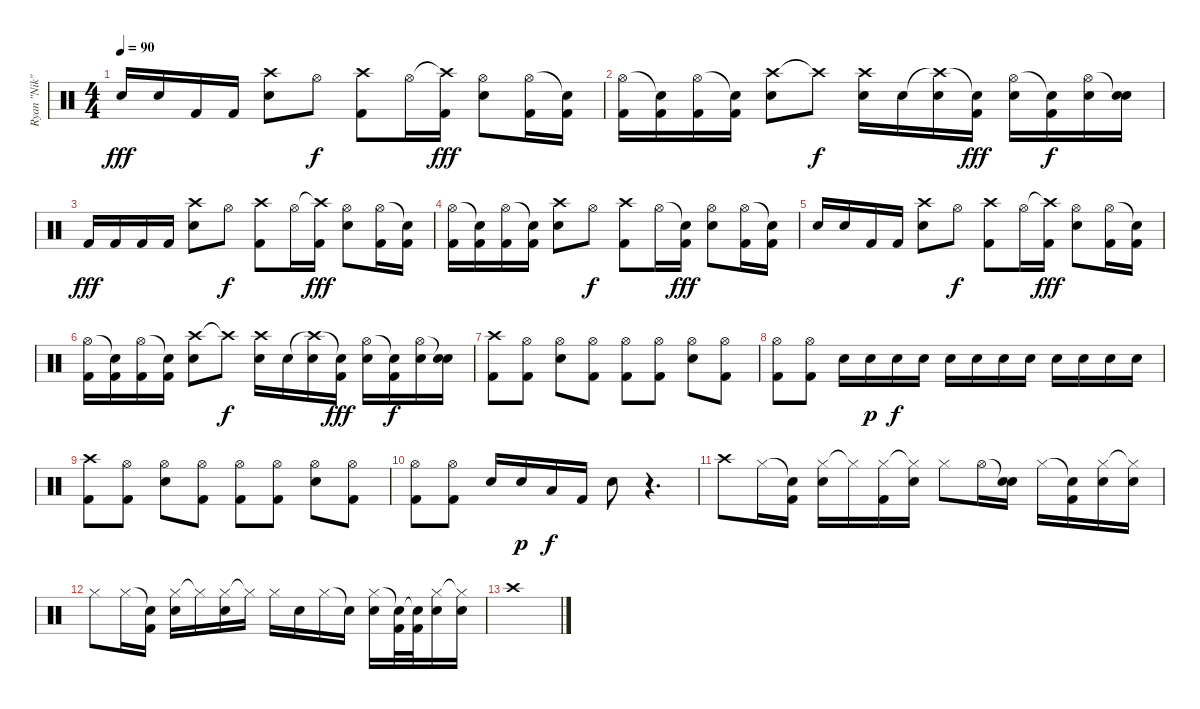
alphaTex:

\track ("Ryan \"Nik\" Vikedal (drums)" "Ryan \"Nik\"") {instrument percussion}
\staff {score}
\articulation defaults
\ts (4 4)
\tempo 90
\clef neutral
\ks c "Electric Snare (hit)".16{dy fff} "Electric Snare (hit)".16 "Kick (hit) 2".16 "Kick (hit) 2".16
("Crash high (hit)" "Electric Snare (hit)").8 "Hi-Hat (open)".8{dy f} ("Crash high (hit)" "Kick (hit) 2").8 "Hi-Hat (open)".16 ("Crash high (hit)"{t} "Kick (hit) 2").16{dy fff} ("Hi-Hat (open)" "Electric Snare (hit)").8 ("Hi-Hat (open)" "Kick (hit) 2").16 ("Snare (hit)"{t} "Kick (hit) 2").16 |
("Hi-Hat (open)" "Kick (hit) 2").16 ("Snare (hit)"{t} "Kick (hit) 2").16 ("Hi-Hat (open)" "Kick (hit) 2").16 ("Snare (hit)"{t} "Kick (hit) 2").16 ("Crash high (hit)" "Electric Snare (hit)").8 "Crash high (hit)"{t}.8{dy f} ("Crash high (hit)" "Electric Snare (hit)").16 "Electric Snare (hit)".16 ("Crash high (hit)"{t} "Electric Snare (hit)").16 ("Snare (hit)"{t} "Kick (hit) 2").16{dy fff} ("Hi-Hat (open)" "Electric Snare (hit)").16 ("Snare (hit)"{t} "Kick (hit) 2").16{dy f} ("Hi-Hat (open)" "Electric Snare (hit)").16 ("Snare (hit)"{t} "Electric Snare (hit)").16 |
"Kick (hit) 2".16{dy fff} "Kick (hit) 2".16 "Kick (hit) 2".16 "Kick (hit) 2".16 ("Crash high (hit)" "Electric Snare (hit)").8 "Hi-Hat (open)".8{dy f} ("Crash high (hit)" "Kick (hit) 2").8 "Hi-Hat (open)".16 ("Crash high (hit)"{t} "Kick (hit) 2").16{dy fff} ("Hi-Hat (open)" "Electric Snare (hit)").8 ("Hi-Hat (open)" "Kick (hit) 2").16 ("Snare (hit)"{t} "Kick (hit) 2").16 |
("Hi-Hat (open)" "Kick (hit) 2").16 ("Snare (hit)"{t} "Kick (hit) 2").16 ("Hi-Hat (open)" "Kick (hit) 2").16 ("Snare (hit)"{t} "Kick (hit) 2").16 ("Crash high (hit)" "Electric Snare (hit)").8 "Hi-Hat (open)".8{dy f} ("Crash high (hit)" "Kick (hit) 2").8 "Hi-Hat (open)".16 ("Snare (hit)"{t} "Kick (hit) 2").16{dy fff} ("Hi-Hat (open)" "Electric Snare (hit)").8 ("Hi-Hat (open)" "Kick (hit) 2").16 ("Snare (hit)"{t} "Kick (hit) 2").16 |
"Electric Snare (hit)".16 "Electric Snare (hit)".16 "Kick (hit) 2".16 "Kick (hit) 2".16 ("Crash high (hit)" "Electric Snare (hit)").8 "Hi-Hat (open)".8{dy f} ("Crash high (hit)" "Kick (hit) 2").8 "Hi-Hat (open)".16 ("Crash high (hit)"{t} "Kick (hit) 2").16{dy fff} ("Hi-Hat (open)" "Electric Snare (hit)").8 ("Hi-Hat (open)" "Kick (hit) 2").16 ("Snare (hit)"{t} "Kick (hit) 2").16 |
("Hi-Hat (open)" "Kick (hit) 2").16 ("Snare (hit)"{t} "Kick (hit) 2").16 ("Hi-Hat (open)" "Kick (hit) 2").16 ("Snare (hit)"{t} "Kick (hit) 2").16 ("Crash high (hit)" "Electric Snare (hit)").8 "Crash high (hit)"{t}.8{dy f} ("Crash high (hit)" "Electric Snare (hit)").16 "Electric Snare (hit)".16 ("Crash high (hit)"{t} "Electric Snare (hit)").16 ("Snare (hit)"{t} "Kick (hit) 2").16{dy fff} ("Hi-Hat (open)" "Electric Snare (hit)").16 ("Snare (hit)"{t} "Kick (hit) 2").16{dy f} ("Hi-Hat (open)" "Electric Snare (hit)").16 ("Snare (hit)"{t} "Electric Snare (hit)").16 |
("Crash high (hit)" "Kick (hit) 2").8 ("Hi-Hat (open)" "Kick (hit) 2").8 ("Hi-Hat (open)" "Electric Snare (hit)").8 ("Hi-Hat (open)" "Kick (hit) 2").8 ("Hi-Hat (open)" "Kick (hit) 2").8 ("Hi-Hat (open)" "Kick (hit) 2").8 ("Hi-Hat (open)" "Electric Snare (hit)").8 ("Hi-Hat (open)" "Kick (hit) 2").8 |
("Hi-Hat (open)" "Kick (hit) 2").8 ("Hi-Hat (open)" "Kick (hit) 2").8 "Electric Snare (hit)".16 "Electric Snare (hit)".16{dy p} "Electric Snare (hit)".16{dy f} "Electric Snare (hit)".16 "Electric Snare (hit)".16 "Electric Snare (hit)".16 "Electric Snare (hit)".16 "Electric Snare (hit)".16 "Electric Snare (hit)".16 "Electric Snare (hit)".16 "Electric Snare (hit)".16 "Electric Snare (hit)".16 |
("Crash high (hit)" "Kick (hit) 2").8 ("Hi-Hat (open)" "Kick (hit) 2").8 ("Hi-Hat (open)" "Electric Snare (hit)").8 ("Hi-Hat (open)" "Kick (hit) 2").8 ("Hi-Hat (open)" "Kick (hit) 2").8 ("Hi-Hat (open)" "Kick (hit) 2").8 ("Hi-Hat (open)" "Electric Snare (hit)").8 ("Hi-Hat (open)" "Kick (hit) 2").8 |
("Hi-Hat (open)" "Kick (hit) 2").8 ("Hi-Hat (open)" "Kick (hit) 2").8 "Electric Snare (hit)".16 "Electric Snare (hit)".16{dy p} "Low Tom (hit)".16{dy f} "Kick (hit) 2".16 "Electric Snare (hit)".8 r.4{d} |
"Crash high (hit)".8 "Hi-Hat (closed)".16 ("Snare (hit)"{t} "Kick (hit) 2").16 ("Hi-Hat (closed)" "Electric Snare (hit)").16 "Hi-Hat (closed)"{t}.16 ("Hi-Hat (closed)" "Kick (hit) 2").16 ("Hi-Hat (closed)"{t} "Electric Snare (hit)").16 "Hi-Hat (closed)".8 "Hi-Hat (open)".16 ("Snare (hit)"{t} "Electric Snare (hit)").16 "Hi-Hat (closed)".16 ("Snare (hit)"{t} "Kick (hit) 2").16 ("Hi-Hat (closed)" "Electric Snare (hit)").16 ("Hi-Hat (closed)"{t} "Electric Snare (hit)").16 |
"Hi-Hat (closed)".8 "Hi-Hat (closed)".16 ("Snare (hit)"{t} "Kick (hit) 2").16 ("Hi-Hat (closed)" "Electric Snare (hit)").16 "Hi-Hat (closed)"{t}.16 ("Hi-Hat (closed)" "Electric Snare (hit)").16 "Hi-Hat (closed)"{t}.16 "Hi-Hat (closed)".16 "Electric Snare (hit)".16 "Hi-Hat (closed)".16 "Snare (hit)"{t}.16 ("Hi-Hat (closed)" "Electric Snare (hit)").16 ("Snare (hit)"{t} "Kick (hit) 2").32 ("Snare (hit)"{t} "Kick (hit) 2").32 ("Hi-Hat (closed)" "Electric Snare (hit)").16 ("Hi-Hat (closed)"{t} "Electric Snare (hit)").16 |
"Crash high (hit)".1
